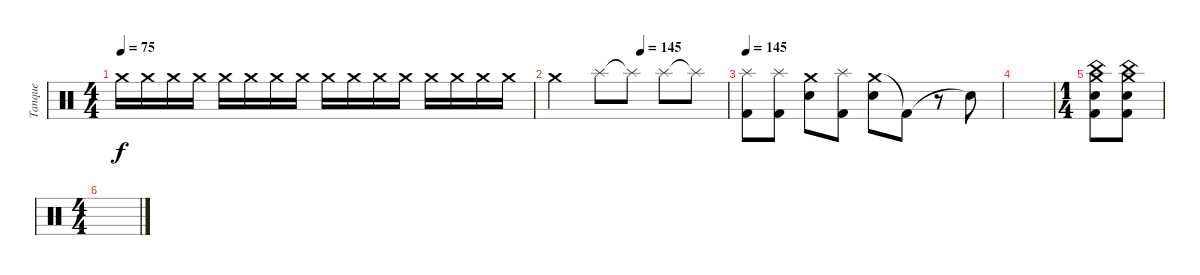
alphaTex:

\track ("Tanque" "Tanque") {instrument percussion}
\staff {score}
\articulation defaults
\ts (4 4)
\tempo 75
\clef neutral
\ks c "Crash medium (hit)".16{dy f} "Crash medium (hit)".16 "Crash medium (hit)".16 "Crash medium (hit)".16 "Crash medium (hit)".16 "Crash medium (hit)".16 "Crash medium (hit)".16 "Crash medium (hit)".16 "Crash medium (hit)".16 "Crash medium (hit)".16 "Crash medium (hit)".16 "Crash medium (hit)".16 "Crash medium (hit)".16 "Crash medium (hit)".16 "Crash medium (hit)".16 "Crash medium (hit)".16
|
\tempo (145 0.5)
"Crash medium (hit)".2 "Splash (hit)".8 "Splash (hit)"{t}.8 "Splash (hit)".8 "Splash (hit)"{t}.8 |
\tempo 145
("Kick (hit) 2" "Splash (hit)").8 ("Kick (hit) 2" "Splash (hit)").8 ("Crash medium (hit)" "Snare (hit) 2").8 ("Kick (hit) 2" "Splash (hit)").8 ("Crash medium (hit)" "Snare (hit) 2").8 "Kick (hit) 2"{t}.8 r.8 "Snare (hit)"{t}.8 |
|
\ts (1 4)
("Kick (hit) 2" "Snare (hit) 2" "Crash medium (hit)" "China (hit)").8 ("Kick (hit) 2" "Snare (hit) 2" "Crash medium (hit)" "China (hit)").8 |
\ts (4 4)
